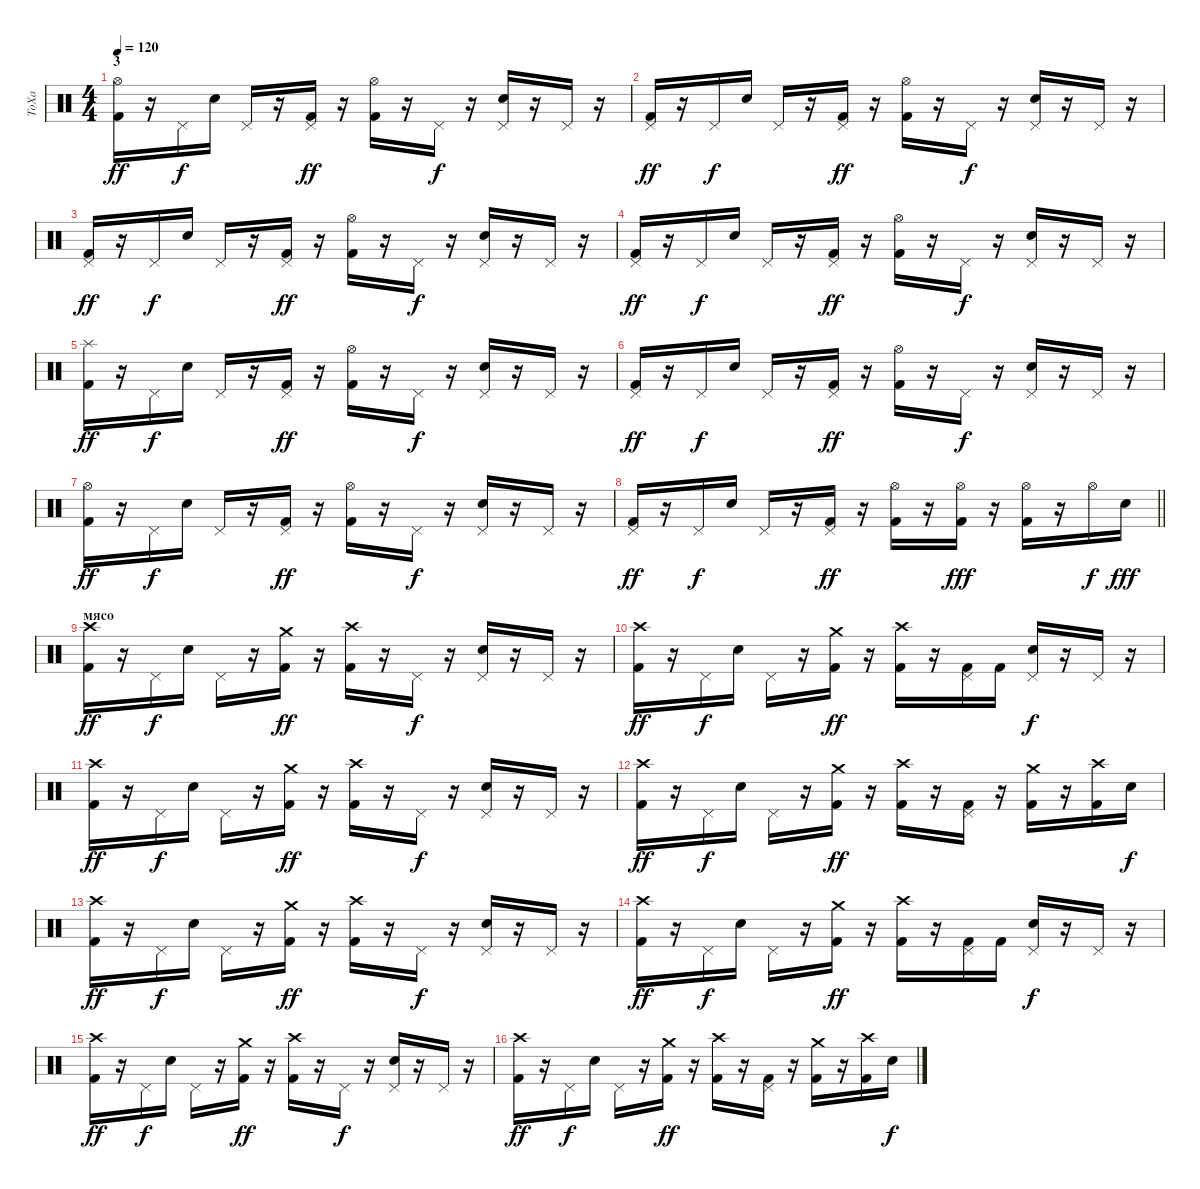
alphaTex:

\track ("ТоХа" "ТоХа") {instrument percussion}
\staff {score}
\articulation defaults
\ts (4 4)
\section ("" "3")
\tempo 120
\clef neutral
\ks c
("Hi-Hat (open)" "Kick (hit) 2").16{dy ff} r.16 "Pedal Hi-Hat (hit)".16{dy f} "Electric Snare (hit)".16 "Pedal Hi-Hat (hit)".16 r.16 ("Pedal Hi-Hat (hit)" "Kick (hit) 2").16{dy ff} r.16 ("Hi-Hat (open)" "Kick (hit) 2").16 r.16 "Pedal Hi-Hat (hit)".16{dy f} r.16 ("Pedal Hi-Hat (hit)" "Electric Snare (hit)").16 r.16 "Pedal Hi-Hat (hit)".16 r.16 |
("Pedal Hi-Hat (hit)" "Kick (hit) 2").16{dy ff} r.16 "Pedal Hi-Hat (hit)".16{dy f} "Electric Snare (hit)".16 "Pedal Hi-Hat (hit)".16 r.16 ("Pedal Hi-Hat (hit)" "Kick (hit) 2").16{dy ff} r.16 ("Hi-Hat (open)" "Kick (hit) 2").16 r.16 "Pedal Hi-Hat (hit)".16{dy f} r.16 ("Pedal Hi-Hat (hit)" "Electric Snare (hit)").16 r.16 "Pedal Hi-Hat (hit)".16 r.16 |
("Pedal Hi-Hat (hit)" "Kick (hit) 2").16{dy ff} r.16 "Pedal Hi-Hat (hit)".16{dy f} "Electric Snare (hit)".16 "Pedal Hi-Hat (hit)".16 r.16 ("Pedal Hi-Hat (hit)" "Kick (hit) 2").16{dy ff} r.16 ("Hi-Hat (open)" "Kick (hit) 2").16 r.16 "Pedal Hi-Hat (hit)".16{dy f} r.16 ("Pedal Hi-Hat (hit)" "Electric Snare (hit)").16 r.16 "Pedal Hi-Hat (hit)".16 r.16 |
("Pedal Hi-Hat (hit)" "Kick (hit) 2").16{dy ff} r.16 "Pedal Hi-Hat (hit)".16{dy f} "Electric Snare (hit)".16 "Pedal Hi-Hat (hit)".16 r.16 ("Pedal Hi-Hat (hit)" "Kick (hit) 2").16{dy ff} r.16 ("Hi-Hat (open)" "Kick (hit) 2").16 r.16 "Pedal Hi-Hat (hit)".16{dy f} r.16 ("Pedal Hi-Hat (hit)" "Electric Snare (hit)").16 r.16 "Pedal Hi-Hat (hit)".16 r.16 |
("Splash (hit)" "Kick (hit) 2").16{dy ff} r.16 "Pedal Hi-Hat (hit)".16{dy f} "Electric Snare (hit)".16 "Pedal Hi-Hat (hit)".16 r.16 ("Pedal Hi-Hat (hit)" "Kick (hit) 2").16{dy ff} r.16 ("Hi-Hat (open)" "Kick (hit) 2").16 r.16 "Pedal Hi-Hat (hit)".16{dy f} r.16 ("Pedal Hi-Hat (hit)" "Electric Snare (hit)").16 r.16 "Pedal Hi-Hat (hit)".16 r.16 |
("Pedal Hi-Hat (hit)" "Kick (hit) 2").16{dy ff} r.16 "Pedal Hi-Hat (hit)".16{dy f} "Electric Snare (hit)".16 "Pedal Hi-Hat (hit)".16 r.16 ("Pedal Hi-Hat (hit)" "Kick (hit) 2").16{dy ff} r.16 ("Hi-Hat (open)" "Kick (hit) 2").16 r.16 "Pedal Hi-Hat (hit)".16{dy f} r.16 ("Pedal Hi-Hat (hit)" "Electric Snare (hit)").16 r.16 "Pedal Hi-Hat (hit)".16 r.16 |
("Hi-Hat (open)" "Kick (hit) 2").16{dy ff} r.16 "Pedal Hi-Hat (hit)".16{dy f} "Electric Snare (hit)".16 "Pedal Hi-Hat (hit)".16 r.16 ("Pedal Hi-Hat (hit)" "Kick (hit) 2").16{dy ff} r.16 ("Hi-Hat (open)" "Kick (hit) 2").16 r.16 "Pedal Hi-Hat (hit)".16{dy f} r.16 ("Pedal Hi-Hat (hit)" "Electric Snare (hit)").16 r.16 "Pedal Hi-Hat (hit)".16 r.16 |
\barLineRight lightlight
("Pedal Hi-Hat (hit)" "Kick (hit) 2").16{dy ff} r.16 "Pedal Hi-Hat (hit)".16{dy f} "Electric Snare (hit)".16 "Pedal Hi-Hat (hit)".16 r.16 ("Pedal Hi-Hat (hit)" "Kick (hit) 2").16{dy ff} r.16 ("Hi-Hat (open)" "Kick (hit) 2").16 r.16 ("Hi-Hat (open)" "Kick (hit) 2").16{dy fff} r.16 ("Hi-Hat (open)" "Kick (hit) 2").16 r.16 "Hi-Hat (open)".16{dy f} "Electric Snare (hit)".16{dy fff} |
\section ("" "мясо")
("Crash high (hit)" "Kick (hit) 2").16{dy ff} r.16 "Pedal Hi-Hat (hit)".16{dy f} "Electric Snare (hit)".16 "Pedal Hi-Hat (hit)".16 r.16 ("Crash medium (hit)" "Kick (hit) 2").16{dy ff} r.16 ("Crash high (hit)" "Kick (hit) 2").16 r.16 "Pedal Hi-Hat (hit)".16{dy f} r.16 ("Pedal Hi-Hat (hit)" "Electric Snare (hit)").16 r.16 "Pedal Hi-Hat (hit)".16 r.16 |
("Crash high (hit)" "Kick (hit) 2").16{dy ff} r.16 "Pedal Hi-Hat (hit)".16{dy f} "Electric Snare (hit)".16 "Pedal Hi-Hat (hit)".16 r.16 ("Crash medium (hit)" "Kick (hit) 2").16{dy ff} r.16 ("Crash high (hit)" "Kick (hit) 2").16 r.16 ("Pedal Hi-Hat (hit)" "Kick (hit) 2").16 "Kick (hit) 2".16 ("Pedal Hi-Hat (hit)" "Electric Snare (hit)").16{dy f} r.16 "Pedal Hi-Hat (hit)".16 r.16 |
("Crash high (hit)" "Kick (hit) 2").16{dy ff} r.16 "Pedal Hi-Hat (hit)".16{dy f} "Electric Snare (hit)".16 "Pedal Hi-Hat (hit)".16 r.16 ("Crash medium (hit)" "Kick (hit) 2").16{dy ff} r.16 ("Crash high (hit)" "Kick (hit) 2").16 r.16 "Pedal Hi-Hat (hit)".16{dy f} r.16 ("Pedal Hi-Hat (hit)" "Electric Snare (hit)").16 r.16 "Pedal Hi-Hat (hit)".16 r.16 |
("Crash high (hit)" "Kick (hit) 2").16{dy ff} r.16 "Pedal Hi-Hat (hit)".16{dy f} "Electric Snare (hit)".16 "Pedal Hi-Hat (hit)".16 r.16 ("Crash medium (hit)" "Kick (hit) 2").16{dy ff} r.16 ("Crash high (hit)" "Kick (hit) 2").16 r.16 ("Pedal Hi-Hat (hit)" "Kick (hit) 2").16 r.16 ("Crash medium (hit)" "Kick (hit) 2").16 r.16 ("Crash high (hit)" "Kick (hit) 2").16 "Electric Snare (hit)".16{dy f} |
("Crash high (hit)" "Kick (hit) 2").16{dy ff} r.16 "Pedal Hi-Hat (hit)".16{dy f} "Electric Snare (hit)".16 "Pedal Hi-Hat (hit)".16 r.16 ("Crash medium (hit)" "Kick (hit) 2").16{dy ff} r.16 ("Crash high (hit)" "Kick (hit) 2").16 r.16 "Pedal Hi-Hat (hit)".16{dy f} r.16 ("Pedal Hi-Hat (hit)" "Electric Snare (hit)").16 r.16 "Pedal Hi-Hat (hit)".16 r.16 |
("Crash high (hit)" "Kick (hit) 2").16{dy ff} r.16 "Pedal Hi-Hat (hit)".16{dy f} "Electric Snare (hit)".16 "Pedal Hi-Hat (hit)".16 r.16 ("Crash medium (hit)" "Kick (hit) 2").16{dy ff} r.16 ("Crash high (hit)" "Kick (hit) 2").16 r.16 ("Pedal Hi-Hat (hit)" "Kick (hit) 2").16 "Kick (hit) 2".16 ("Pedal Hi-Hat (hit)" "Electric Snare (hit)").16{dy f} r.16 "Pedal Hi-Hat (hit)".16 r.16 |
("Crash high (hit)" "Kick (hit) 2").16{dy ff} r.16 "Pedal Hi-Hat (hit)".16{dy f} "Electric Snare (hit)".16 "Pedal Hi-Hat (hit)".16 r.16 ("Crash medium (hit)" "Kick (hit) 2").16{dy ff} r.16 ("Crash high (hit)" "Kick (hit) 2").16 r.16 "Pedal Hi-Hat (hit)".16{dy f} r.16 ("Pedal Hi-Hat (hit)" "Electric Snare (hit)").16 r.16 "Pedal Hi-Hat (hit)".16 r.16 |
("Crash high (hit)" "Kick (hit) 2").16{dy ff} r.16 "Pedal Hi-Hat (hit)".16{dy f} "Electric Snare (hit)".16 "Pedal Hi-Hat (hit)".16 r.16 ("Crash medium (hit)" "Kick (hit) 2").16{dy ff} r.16 ("Crash high (hit)" "Kick (hit) 2").16 r.16 ("Pedal Hi-Hat (hit)" "Kick (hit) 2").16 r.16 ("Crash medium (hit)" "Kick (hit) 2").16 r.16 ("Crash high (hit)" "Kick (hit) 2").16 "Electric Snare (hit)".16{dy f}
